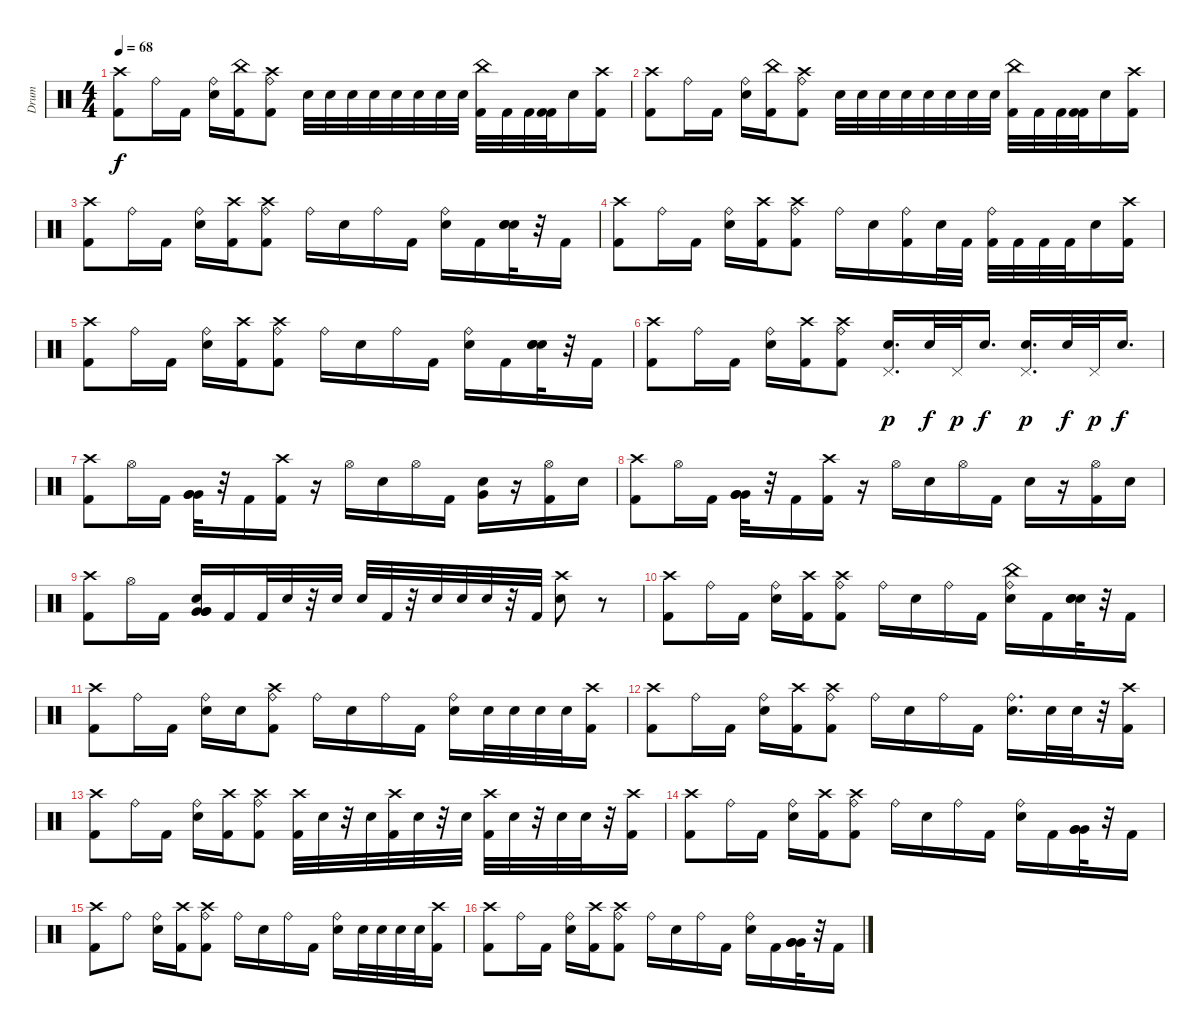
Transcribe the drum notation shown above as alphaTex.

\track ("Drum" "Drum") {instrument percussion}
\staff {score}
\articulation defaults
\ts (4 4)
\tempo 68
\clef neutral
\ks c
("Crash high (hit)" "Kick (hit) 2").8{dy f} "Ride (bell)".16 "Kick (hit) 2".16 ("Ride (bell)" "Electric Snare (hit)").16 ("Kick (hit) 2" "China (hit)").16 ("Ride (bell)" "Crash high (hit)" "Kick (hit) 2").8 "Electric Snare (hit)".32 "Electric Snare (hit)".32 "Electric Snare (hit)".32 "Electric Snare (hit)".32 "Electric Snare (hit)".32 "Electric Snare (hit)".32 "Electric Snare (hit)".32 "Electric Snare (hit)".32 ("China (hit)" "Kick (hit) 2").32 "Kick (hit) 2".32 "Kick (hit) 2".32 ("Kick (hit) 2" "Kick (hit) 2").32 "Electric Snare (hit)".16 ("Crash high (hit)" "Kick (hit) 2").16 |
("Crash high (hit)" "Kick (hit) 2").8 "Ride (bell)".16 "Kick (hit) 2".16 ("Ride (bell)" "Electric Snare (hit)").16 ("Kick (hit) 2" "China (hit)").16 ("Ride (bell)" "Crash high (hit)" "Kick (hit) 2").8 "Electric Snare (hit)".32 "Electric Snare (hit)".32 "Electric Snare (hit)".32 "Electric Snare (hit)".32 "Electric Snare (hit)".32 "Electric Snare (hit)".32 "Electric Snare (hit)".32 "Electric Snare (hit)".32 ("China (hit)" "Kick (hit) 2").32 "Kick (hit) 2".32 "Kick (hit) 2".32 ("Kick (hit) 2" "Kick (hit) 2").32 "Electric Snare (hit)".16 ("Crash high (hit)" "Kick (hit) 2").16 |
("Kick (hit) 2" "Crash high (hit)").8 "Ride (bell)".16 "Kick (hit) 2".16 ("Ride (bell)" "Electric Snare (hit)").16 ("Kick (hit) 2" "Crash high (hit)").16 ("Ride (bell)" "Crash high (hit)" "Kick (hit) 2").8 "Ride (bell)".16 "Electric Snare (hit)".16 "Ride (bell)".16 "Kick (hit) 2".16 ("Electric Snare (hit)" "Ride (bell)").16 "Kick (hit) 2".16 ("Electric Snare (hit)" "Electric Snare (hit)" "Electric Snare (hit)").32 r.32 "Kick (hit) 2".16 |
("Kick (hit) 2" "Crash high (hit)").8 "Ride (bell)".16 "Kick (hit) 2".16 ("Ride (bell)" "Electric Snare (hit)").16 ("Crash high (hit)" "Kick (hit) 2").16 ("Ride (bell)" "Crash high (hit)" "Kick (hit) 2").8 "Ride (bell)".16 "Electric Snare (hit)".16 ("Ride (bell)" "Kick (hit) 2").16 "Electric Snare (hit)".32 "Kick (hit) 2".32 ("Kick (hit) 2" "Ride (bell)").32 "Kick (hit) 2".32 "Kick (hit) 2".32 "Kick (hit) 2".32 "Electric Snare (hit)".16 ("Crash high (hit)" "Kick (hit) 2").16 |
("Kick (hit) 2" "Crash high (hit)").8 "Ride (bell)".16 "Kick (hit) 2".16 ("Ride (bell)" "Electric Snare (hit)").16 ("Crash high (hit)" "Kick (hit) 2").16 ("Ride (bell)" "Crash high (hit)" "Kick (hit) 2").8 "Ride (bell)".16 "Electric Snare (hit)".16 "Ride (bell)".16 "Kick (hit) 2".16 ("Electric Snare (hit)" "Ride (bell)").16 "Kick (hit) 2".16 ("Electric Snare (hit)" "Electric Snare (hit)" "Electric Snare (hit)").32 r.32 "Kick (hit) 2".16 |
("Crash high (hit)" "Kick (hit) 2").8 "Ride (bell)".16 "Kick (hit) 2".16 ("Ride (bell)" "Electric Snare (hit)").16 ("Crash high (hit)" "Kick (hit) 2").16 ("Ride (bell)" "Crash high (hit)" "Kick (hit) 2").8 ("Electric Snare (hit)" "Pedal Hi-Hat (hit)").16{d dy p} "Electric Snare (hit)".32{dy f} "Pedal Hi-Hat (hit)".32{dy p} "Electric Snare (hit)".16{d dy f} ("Electric Snare (hit)" "Pedal Hi-Hat (hit)").16{d dy p} "Electric Snare (hit)".32{dy f} "Pedal Hi-Hat (hit)".32{dy p} "Electric Snare (hit)".16{d dy f} |
("Kick (hit) 2" "Crash high (hit)").8 "Hi-Hat (open)".16 "Kick (hit) 2".16 ("Very Low Tom (hit)" "Very Low Tom (hit)" "Very Low Tom (hit)").32 r.32 "Kick (hit) 2".16 ("Crash high (hit)" "Kick (hit) 2").16 r.16 "Hi-Hat (open)".16 "Electric Snare (hit)".16 "Hi-Hat (open)".16 "Kick (hit) 2".16 ("Electric Snare (hit)" "Very Low Tom (hit)").16 r.16 ("Kick (hit) 2" "Hi-Hat (open)").16 "Electric Snare (hit)".16 |
("Kick (hit) 2" "Crash high (hit)").8 "Hi-Hat (open)".16 "Kick (hit) 2".16 ("Very Low Tom (hit)" "Very Low Tom (hit)" "Very Low Tom (hit)").32 r.32 "Kick (hit) 2".16 ("Crash high (hit)" "Kick (hit) 2").16 r.16 "Hi-Hat (open)".16 "Electric Snare (hit)".16 "Hi-Hat (open)".16 "Kick (hit) 2".16 "Electric Snare (hit)".16 r.16 ("Kick (hit) 2" "Hi-Hat (open)").16 "Electric Snare (hit)".16 |
("Crash high (hit)" "Kick (hit) 2").8 "Hi-Hat (open)".16 "Kick (hit) 2".16 ("Very Low Tom (hit)" "Very Low Tom (hit)" "Electric Snare (hit)" "Very Low Tom (hit)").16 "Kick (hit) 2".16 "Kick (hit) 2".32 "Electric Snare (hit)".32 r.32 "Electric Snare (hit)".32 "Electric Snare (hit)".32 "Kick (hit) 2".32 r.32 "Electric Snare (hit)".32 "Electric Snare (hit)".32 "Electric Snare (hit)".32 r.32 "Kick (hit) 2".32 ("Electric Snare (hit)" "Crash high (hit)").8 r.8 |
("Crash high (hit)" "Kick (hit) 2").8 "Ride (bell)".16 "Kick (hit) 2".16 ("Ride (bell)" "Electric Snare (hit)").16 ("Kick (hit) 2" "Crash high (hit)").16 ("Ride (bell)" "Crash high (hit)" "Kick (hit) 2").8 "Ride (bell)".16 "Electric Snare (hit)".16 "Ride (bell)".16 "Kick (hit) 2".16 ("Electric Snare (hit)" "Ride (bell)" "China (hit)").16 "Kick (hit) 2".16 ("Electric Snare (hit)" "Electric Snare (hit)" "Electric Snare (hit)").32 r.32 "Kick (hit) 2".16 |
("Kick (hit) 2" "Crash high (hit)").8 "Ride (bell)".16 "Kick (hit) 2".16 ("Ride (bell)" "Electric Snare (hit)").16 "Electric Snare (hit)".16 ("Ride (bell)" "Crash high (hit)" "Kick (hit) 2").8 "Ride (bell)".16 "Electric Snare (hit)".16 "Ride (bell)".16 "Kick (hit) 2".16 ("Ride (bell)" "Electric Snare (hit)").16 "Electric Snare (hit)".32 "Electric Snare (hit)".32 "Electric Snare (hit)".32 "Electric Snare (hit)".32 ("Crash high (hit)" "Kick (hit) 2").16 |
("Kick (hit) 2" "Crash high (hit)").8 "Ride (bell)".16 "Kick (hit) 2".16 ("Ride (bell)" "Electric Snare (hit)").16 ("Crash high (hit)" "Kick (hit) 2").16 ("Ride (bell)" "Crash high (hit)" "Kick (hit) 2").8 "Ride (bell)".16 "Electric Snare (hit)".16 "Ride (bell)".16 "Kick (hit) 2".16 ("Electric Snare (hit)" "Ride (bell)").16{d} "Electric Snare (hit)".32 "Electric Snare (hit)".32 r.32 ("Kick (hit) 2" "Crash high (hit)").16 |
("Crash high (hit)" "Kick (hit) 2").8 "Ride (bell)".16 "Kick (hit) 2".16 ("Ride (bell)" "Electric Snare (hit)").16 ("Crash high (hit)" "Kick (hit) 2").16 ("Ride (bell)" "Crash high (hit)" "Kick (hit) 2").8 ("Kick (hit) 2" "Crash high (hit)").32 "Electric Snare (hit)".32 r.32 "Electric Snare (hit)".32 ("Kick (hit) 2" "Crash high (hit)").32 "Electric Snare (hit)".32 r.32 "Electric Snare (hit)".32 ("Kick (hit) 2" "Crash high (hit)").32 "Electric Snare (hit)".32 r.32 "Electric Snare (hit)".32 "Electric Snare (hit)".32 r.32 ("Crash high (hit)" "Kick (hit) 2").16 |
("Kick (hit) 2" "Crash high (hit)").8 "Ride (bell)".16 "Kick (hit) 2".16 ("Ride (bell)" "Electric Snare (hit)").16 ("Kick (hit) 2" "Crash high (hit)").16 ("Ride (bell)" "Crash high (hit)" "Kick (hit) 2").8 "Ride (bell)".16 "Electric Snare (hit)".16 "Ride (bell)".16 "Kick (hit) 2".16 ("Electric Snare (hit)" "Ride (bell)").16 "Kick (hit) 2".16 ("Very Low Tom (hit)" "Very Low Tom (hit)" "Very Low Tom (hit)").32 r.32 "Kick (hit) 2".16 |
("Kick (hit) 2" "Crash high (hit)").8 "Ride (bell)".8 ("Ride (bell)" "Electric Snare (hit)").16 ("Kick (hit) 2" "Crash high (hit)").16 ("Ride (bell)" "Crash high (hit)" "Kick (hit) 2").8 "Ride (bell)".16 "Electric Snare (hit)".16 "Ride (bell)".16 "Kick (hit) 2".16 ("Ride (bell)" "Electric Snare (hit)").16 "Electric Snare (hit)".32 "Electric Snare (hit)".32 "Electric Snare (hit)".32 "Electric Snare (hit)".32 ("Crash high (hit)" "Kick (hit) 2").16 |
("Crash high (hit)" "Kick (hit) 2").8 "Ride (bell)".16 "Kick (hit) 2".16 ("Ride (bell)" "Electric Snare (hit)").16 ("Kick (hit) 2" "Crash high (hit)").16 ("Ride (bell)" "Crash high (hit)" "Kick (hit) 2").8 "Ride (bell)".16 "Electric Snare (hit)".16 "Ride (bell)".16 "Kick (hit) 2".16 ("Electric Snare (hit)" "Ride (bell)").16 "Kick (hit) 2".16 ("Very Low Tom (hit)" "Very Low Tom (hit)" "Very Low Tom (hit)").32 r.32 "Kick (hit) 2".16
